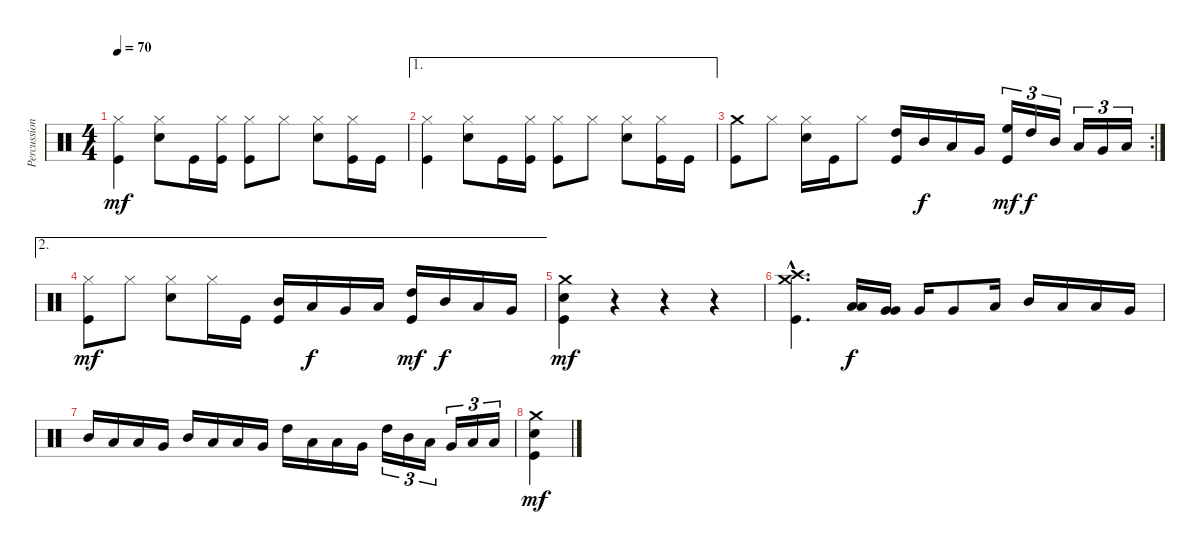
\track ("Percussion" "Percussion") {instrument percussion}
\staff {score}
\articulation defaults
\ts (4 4)
\tempo 70
\clef neutral
\ks c
("Hi-Hat (closed)" "Kick (hit)").4{dy mf} ("Hi-Hat (closed)" "Snare (hit) 2").8 "Kick (hit)".16 ("Hi-Hat (closed)" "Kick (hit)").16 ("Hi-Hat (closed)" "Kick (hit)").8 "Hi-Hat (closed)".8 ("Hi-Hat (closed)" "Snare (hit) 2").8 ("Hi-Hat (closed)" "Kick (hit)").16 "Kick (hit)".16 |
\ae 1
("Hi-Hat (closed)" "Kick (hit)").4 ("Hi-Hat (closed)" "Snare (hit) 2").8 "Kick (hit)".16 ("Hi-Hat (closed)" "Kick (hit)").16 ("Hi-Hat (closed)" "Kick (hit)").8 "Hi-Hat (closed)".8 ("Hi-Hat (closed)" "Snare (hit) 2").8 ("Hi-Hat (closed)" "Kick (hit)").16 "Kick (hit)".16 |
\rc 2
("Crash medium (hit)" "Kick (hit)").8 "Hi-Hat (closed)".8 ("Hi-Hat (closed)" "Snare (hit) 2").16 "Kick (hit)".16 "Hi-Hat (closed)".8 ("High Tom (hit)" "Kick (hit)").16 "Mid Tom (hit)".16{dy f} "Low Tom (hit)".16 "Very Low Tom (hit)".16 ("High Floor Tom (hit)" "Kick (hit)").16{tu (3 2) dy mf} "High Tom (hit)".16{tu (3 2) dy f} "Mid Tom (hit)".16{tu (3 2)} "Low Tom (hit)".16{tu (3 2)} "Very Low Tom (hit)".16{tu (3 2)} "Low Floor Tom (hit)".16{tu (3 2)} |
\ae 2
("Hi-Hat (closed)" "Kick (hit)").8{dy mf} "Hi-Hat (closed)".8 ("Hi-Hat (closed)" "Snare (hit) 2").8 "Hi-Hat (closed)".16 "Kick (hit)".16 ("Mid Tom (hit)" "Kick (hit)").16 "Low Tom (hit)".16{dy f} "Very Low Tom (hit)".16 "Low Floor Tom (hit)".16 ("High Tom (hit)" "Kick (hit)").16{dy mf} "Mid Tom (hit)".16{dy f} "Low Tom (hit)".16 "Very Low Tom (hit)".16 |
("Crash medium (hit)" "Snare (hit) 2" "Kick (hit)").4{dy mf} r.4 r.4 r.4 |
("Crash medium (hit)"{hac} "Crash high (hit)"{hac} "Kick (hit)"{hac}).4{d} ("Low Tom (hit)" "Low Tom (hit)").16{dy f} ("Very Low Tom (hit)" "Very Low Tom (hit)").16 "Very Low Tom (hit)".16 "Very Low Tom (hit)".8 "Low Floor Tom (hit)".16 "Mid Tom (hit)".16 "Low Tom (hit)".16 "Low Tom (hit)".16 "Very Low Tom (hit)".16 |
"Mid Tom (hit)".16 "Low Tom (hit)".16 "Low Tom (hit)".16 "Very Low Tom (hit)".16 "Mid Tom (hit)".16 "Low Tom (hit)".16 "Low Tom (hit)".16 "Very Low Tom (hit)".16 "High Tom (hit)".16 "Low Tom (hit)".16 "Low Tom (hit)".16 "Very Low Tom (hit)".16 "High Tom (hit)".16{tu (3 2)} "Mid Tom (hit)".16{tu (3 2)} "Low Tom (hit)".16{tu (3 2)} "Very Low Tom (hit)".16{tu (3 2)} "Low Floor Tom (hit)".16{tu (3 2)} "Low Floor Tom (hit)".16{tu (3 2)} |
("Crash medium (hit)" "Snare (hit) 2" "Kick (hit)").4{dy mf}
